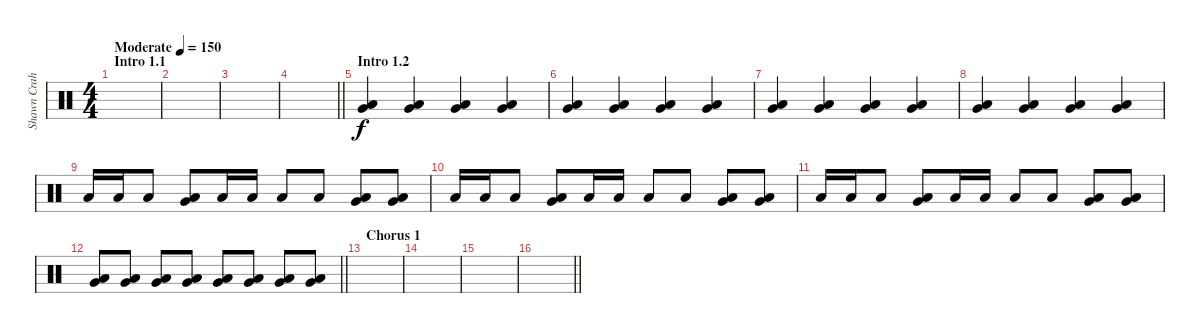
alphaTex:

\track ("Shawn Crahan" "Shawn Crah") {instrument percussion}
\staff {score}
\articulation defaults
\ts (4 4)
\section ("" "Intro 1.1")
\tempo (150 "Moderate")
\clef neutral
\ks c
|
|
|
\barLineRight lightlight
|
\section ("" "Intro 1.2")
("Very Low Tom (hit)" "Low Floor Tom (hit)").4 ("Very Low Tom (hit)" "Low Floor Tom (hit)").4 ("Very Low Tom (hit)" "Low Floor Tom (hit)").4 ("Very Low Tom (hit)" "Low Floor Tom (hit)").4 |
("Very Low Tom (hit)" "Low Floor Tom (hit)").4 ("Very Low Tom (hit)" "Low Floor Tom (hit)").4 ("Very Low Tom (hit)" "Low Floor Tom (hit)").4 ("Very Low Tom (hit)" "Low Floor Tom (hit)").4 |
("Very Low Tom (hit)" "Low Floor Tom (hit)").4 ("Very Low Tom (hit)" "Low Floor Tom (hit)").4 ("Very Low Tom (hit)" "Low Floor Tom (hit)").4 ("Very Low Tom (hit)" "Low Floor Tom (hit)").4 |
("Very Low Tom (hit)" "Low Floor Tom (hit)").4 ("Very Low Tom (hit)" "Low Floor Tom (hit)").4 ("Very Low Tom (hit)" "Low Floor Tom (hit)").4 ("Very Low Tom (hit)" "Low Floor Tom (hit)").4 |
"Low Floor Tom (hit)".16 "Low Floor Tom (hit)".16 "Low Floor Tom (hit)".8 ("Very Low Tom (hit)" "Low Floor Tom (hit)").8 "Low Floor Tom (hit)".16 "Low Floor Tom (hit)".16 "Low Floor Tom (hit)".8 "Low Floor Tom (hit)".8 ("Very Low Tom (hit)" "Low Floor Tom (hit)").8 ("Very Low Tom (hit)" "Low Floor Tom (hit)").8 |
"Low Floor Tom (hit)".16 "Low Floor Tom (hit)".16 "Low Floor Tom (hit)".8 ("Very Low Tom (hit)" "Low Floor Tom (hit)").8 "Low Floor Tom (hit)".16 "Low Floor Tom (hit)".16 "Low Floor Tom (hit)".8 "Low Floor Tom (hit)".8 ("Very Low Tom (hit)" "Low Floor Tom (hit)").8 ("Very Low Tom (hit)" "Low Floor Tom (hit)").8 |
"Low Floor Tom (hit)".16 "Low Floor Tom (hit)".16 "Low Floor Tom (hit)".8 ("Very Low Tom (hit)" "Low Floor Tom (hit)").8 "Low Floor Tom (hit)".16 "Low Floor Tom (hit)".16 "Low Floor Tom (hit)".8 "Low Floor Tom (hit)".8 ("Very Low Tom (hit)" "Low Floor Tom (hit)").8 ("Very Low Tom (hit)" "Low Floor Tom (hit)").8 |
\barLineRight lightlight
("Very Low Tom (hit)" "Low Floor Tom (hit)").8 ("Very Low Tom (hit)" "Low Floor Tom (hit)").8 ("Very Low Tom (hit)" "Low Floor Tom (hit)").8 ("Very Low Tom (hit)" "Low Floor Tom (hit)").8 ("Very Low Tom (hit)" "Low Floor Tom (hit)").8 ("Very Low Tom (hit)" "Low Floor Tom (hit)").8 ("Very Low Tom (hit)" "Low Floor Tom (hit)").8 ("Very Low Tom (hit)" "Low Floor Tom (hit)").8 |
\section ("" "Chorus 1")
|
|
|
\barLineRight lightlight
